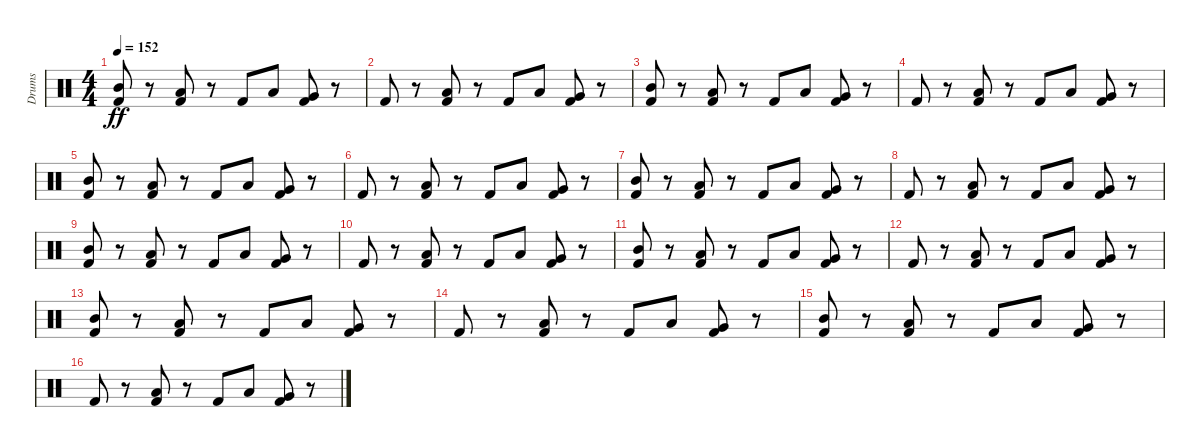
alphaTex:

\track ("Drums" "Drums") {instrument percussion}
\staff {score}
\articulation defaults
\ts (4 4)
\tempo 152
\clef neutral
\ks c
("Kick (hit) 2" "Mid Tom (hit)").8{dy ff} r.8 ("Kick (hit) 2" "Low Tom (hit)").8 r.8 "Kick (hit) 2".8 "Low Tom (hit)".8 ("Kick (hit) 2" "Very Low Tom (hit)").8 r.8 |
"Kick (hit) 2".8 r.8 ("Kick (hit) 2" "Low Tom (hit)").8 r.8 "Kick (hit) 2".8 "Low Tom (hit)".8 ("Kick (hit) 2" "Very Low Tom (hit)").8 r.8 |
("Mid Tom (hit)" "Kick (hit) 2").8 r.8 ("Kick (hit) 2" "Low Tom (hit)").8 r.8 "Kick (hit) 2".8 "Low Tom (hit)".8 ("Kick (hit) 2" "Very Low Tom (hit)").8 r.8 |
"Kick (hit) 2".8 r.8 ("Low Tom (hit)" "Kick (hit) 2").8 r.8 "Kick (hit) 2".8 "Low Tom (hit)".8 ("Very Low Tom (hit)" "Kick (hit) 2").8 r.8 |
("Mid Tom (hit)" "Kick (hit) 2").8 r.8 ("Low Tom (hit)" "Kick (hit) 2").8 r.8 "Kick (hit) 2".8 "Low Tom (hit)".8 ("Very Low Tom (hit)" "Kick (hit) 2").8 r.8 |
"Kick (hit) 2".8 r.8 ("Low Tom (hit)" "Kick (hit) 2").8 r.8 "Kick (hit) 2".8 "Low Tom (hit)".8 ("Very Low Tom (hit)" "Kick (hit) 2").8 r.8 |
("Kick (hit) 2" "Mid Tom (hit)").8 r.8 ("Low Tom (hit)" "Kick (hit) 2").8 r.8 "Kick (hit) 2".8 "Low Tom (hit)".8 ("Very Low Tom (hit)" "Kick (hit) 2").8 r.8 |
"Kick (hit) 2".8 r.8 ("Kick (hit) 2" "Low Tom (hit)").8 r.8 "Kick (hit) 2".8 "Low Tom (hit)".8 ("Kick (hit) 2" "Very Low Tom (hit)").8 r.8 |
("Kick (hit) 2" "Mid Tom (hit)").8 r.8 ("Kick (hit) 2" "Low Tom (hit)").8 r.8 "Kick (hit) 2".8 "Low Tom (hit)".8 ("Kick (hit) 2" "Very Low Tom (hit)").8 r.8 |
"Kick (hit) 2".8 r.8 ("Kick (hit) 2" "Low Tom (hit)").8 r.8 "Kick (hit) 2".8 "Low Tom (hit)".8 ("Kick (hit) 2" "Very Low Tom (hit)").8 r.8 |
("Mid Tom (hit)" "Kick (hit) 2").8 r.8 ("Kick (hit) 2" "Low Tom (hit)").8 r.8 "Kick (hit) 2".8 "Low Tom (hit)".8 ("Kick (hit) 2" "Very Low Tom (hit)").8 r.8 |
"Kick (hit) 2".8 r.8 ("Low Tom (hit)" "Kick (hit) 2").8 r.8 "Kick (hit) 2".8 "Low Tom (hit)".8 ("Very Low Tom (hit)" "Kick (hit) 2").8 r.8 |
("Mid Tom (hit)" "Kick (hit) 2").8 r.8 ("Low Tom (hit)" "Kick (hit) 2").8 r.8 "Kick (hit) 2".8 "Low Tom (hit)".8 ("Very Low Tom (hit)" "Kick (hit) 2").8 r.8 |
"Kick (hit) 2".8 r.8 ("Low Tom (hit)" "Kick (hit) 2").8 r.8 "Kick (hit) 2".8 "Low Tom (hit)".8 ("Very Low Tom (hit)" "Kick (hit) 2").8 r.8 |
("Kick (hit) 2" "Mid Tom (hit)").8 r.8 ("Low Tom (hit)" "Kick (hit) 2").8 r.8 "Kick (hit) 2".8 "Low Tom (hit)".8 ("Very Low Tom (hit)" "Kick (hit) 2").8 r.8 |
"Kick (hit) 2".8 r.8 ("Kick (hit) 2" "Low Tom (hit)").8 r.8 "Kick (hit) 2".8 "Low Tom (hit)".8 ("Kick (hit) 2" "Very Low Tom (hit)").8 r.8
